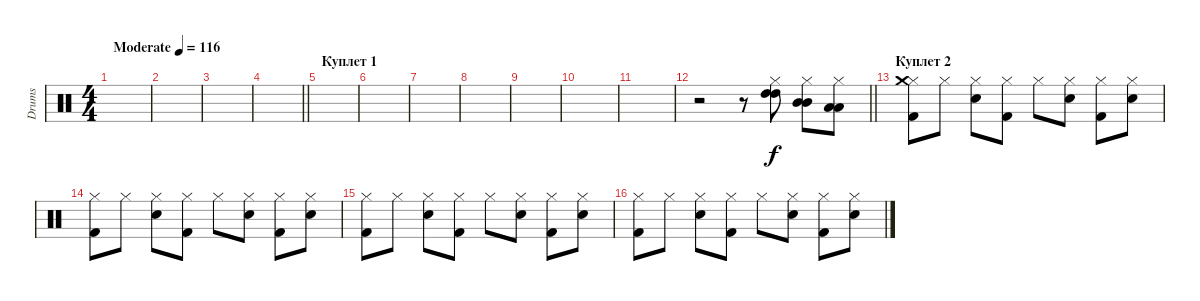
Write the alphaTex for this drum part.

\track ("Drums" "Drums") {instrument percussion}
\staff {score}
\articulation defaults
\ts (4 4)
\tempo (116 "Moderate")
\clef neutral
\ks c
|
|
|
\barLineRight lightlight
|
\section ("" "Куплет 1")
|
|
|
|
|
|
|
\barLineRight lightlight
r.2 r.8 ("Hi-Hat (closed)" "High Tom (hit)" "High Tom (hit)").8 ("Hi-Hat (closed)" "Mid Tom (hit)" "Mid Tom (hit)").8 ("Hi-Hat (closed)" "Low Tom (hit)" "Low Tom (hit)").8 |
\section ("" "Куплет 2")
("Hi-Hat (closed)" "Kick (hit) 2" "Crash medium (hit)").8 "Hi-Hat (closed)".8 ("Hi-Hat (closed)" "Electric Snare (hit)").8 ("Hi-Hat (closed)" "Kick (hit) 2").8 "Hi-Hat (closed)".8 ("Hi-Hat (closed)" "Electric Snare (hit)").8 ("Hi-Hat (closed)" "Kick (hit) 2").8 ("Hi-Hat (closed)" "Electric Snare (hit)").8 |
("Hi-Hat (closed)" "Kick (hit) 2").8 "Hi-Hat (closed)".8 ("Hi-Hat (closed)" "Electric Snare (hit)").8 ("Hi-Hat (closed)" "Kick (hit) 2").8 "Hi-Hat (closed)".8 ("Hi-Hat (closed)" "Electric Snare (hit)").8 ("Hi-Hat (closed)" "Kick (hit) 2").8 ("Hi-Hat (closed)" "Electric Snare (hit)").8 |
("Hi-Hat (closed)" "Kick (hit) 2").8 "Hi-Hat (closed)".8 ("Hi-Hat (closed)" "Electric Snare (hit)").8 ("Hi-Hat (closed)" "Kick (hit) 2").8 "Hi-Hat (closed)".8 ("Hi-Hat (closed)" "Electric Snare (hit)").8 ("Hi-Hat (closed)" "Kick (hit) 2").8 ("Hi-Hat (closed)" "Electric Snare (hit)").8 |
("Hi-Hat (closed)" "Kick (hit) 2").8 "Hi-Hat (closed)".8 ("Hi-Hat (closed)" "Electric Snare (hit)").8 ("Hi-Hat (closed)" "Kick (hit) 2").8 "Hi-Hat (closed)".8 ("Hi-Hat (closed)" "Electric Snare (hit)").8 ("Hi-Hat (closed)" "Kick (hit) 2").8 ("Hi-Hat (closed)" "Electric Snare (hit)").8
